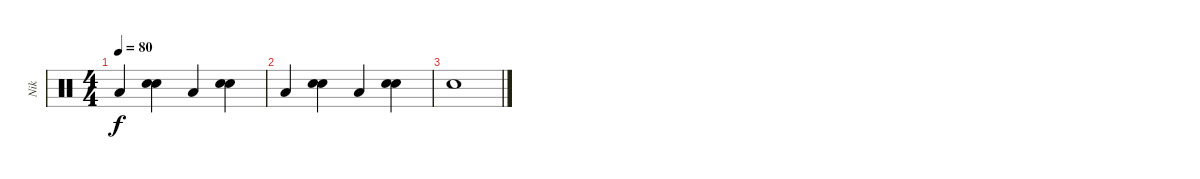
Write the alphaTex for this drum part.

\track ("Nik" "Nik") {instrument percussion}
\staff {score}
\articulation defaults
\ts (4 4)
\tempo 80
\clef neutral
\ks c "Low Floor Tom (hit)".4{dy f}
("Hand Clap (hit)" "Hand Clap (hit)").4 "Low Floor Tom (hit)".4 ("Hand Clap (hit)" "Hand Clap (hit)").4 |
"Low Floor Tom (hit)".4 ("Hand Clap (hit)" "Hand Clap (hit)").4 "Low Floor Tom (hit)".4 ("Hand Clap (hit)" "Hand Clap (hit)").4 |
"Hand Clap (hit)".1
